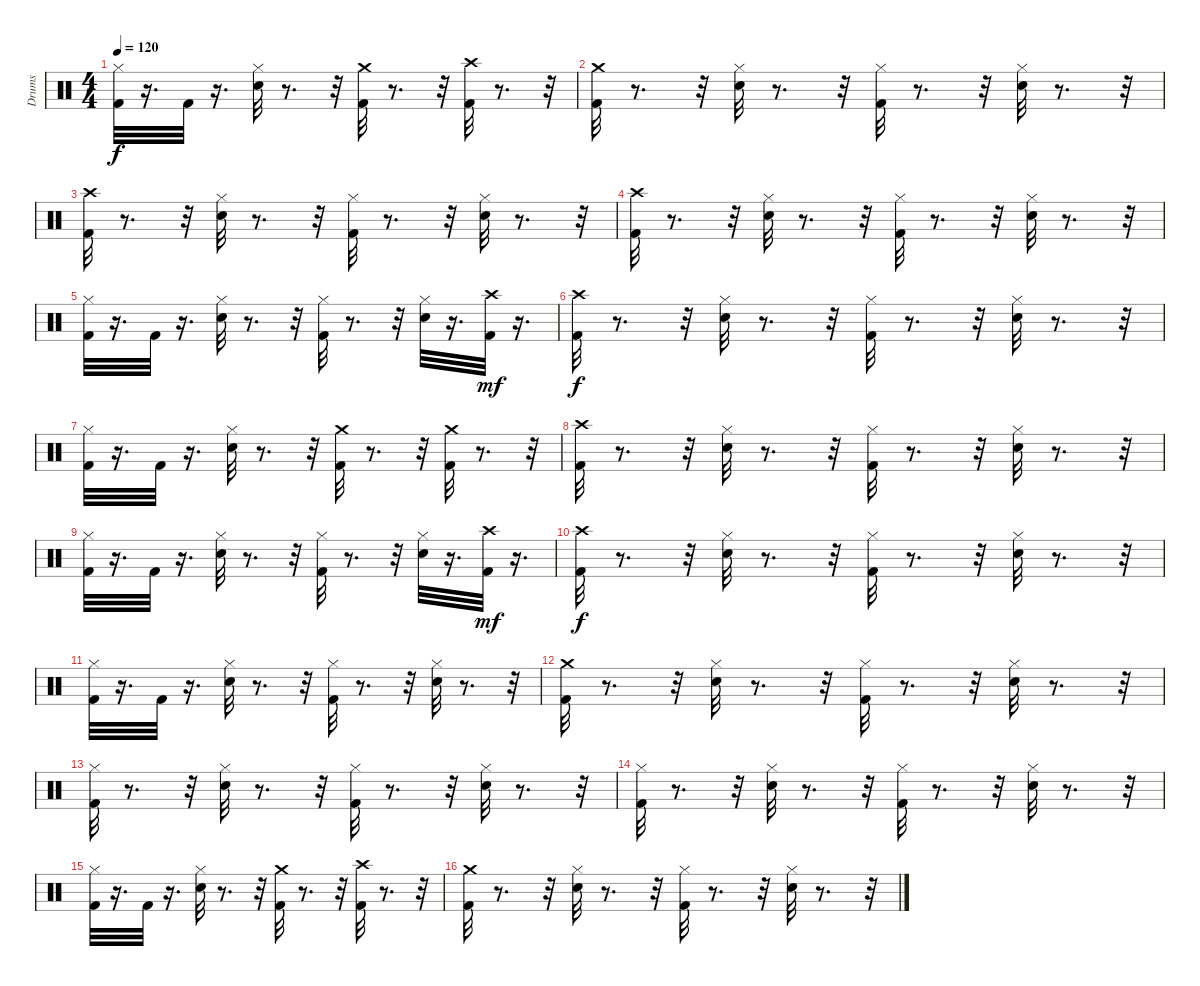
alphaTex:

\track ("Drums" "Drums") {instrument percussion}
\staff {score}
\articulation defaults
\ts (4 4)
\tempo 120
\clef neutral
\ks c
("Kick (hit) 2" "Hi-Hat (closed)").32{dy f} r.16{d} "Kick (hit) 2".32 r.16{d} ("Snare (hit) 2" "Hi-Hat (closed)").32 r.8{d} r.32 ("Kick (hit) 2" "Crash medium (hit)").32 r.8{d} r.32 ("Kick (hit) 2" "Crash high (hit)").32 r.8{d} r.32 |
("Kick (hit) 2" "Crash medium (hit)").32 r.8{d} r.32 ("Snare (hit) 2" "Hi-Hat (closed)").32 r.8{d} r.32 ("Kick (hit) 2" "Hi-Hat (closed)").32 r.8{d} r.32 ("Snare (hit) 2" "Hi-Hat (closed)").32 r.8{d} r.32 |
("Kick (hit) 2" "Crash high (hit)").32 r.8{d} r.32 ("Snare (hit) 2" "Hi-Hat (closed)").32 r.8{d} r.32 ("Kick (hit) 2" "Hi-Hat (closed)").32 r.8{d} r.32 ("Snare (hit) 2" "Hi-Hat (closed)").32 r.8{d} r.32 |
("Kick (hit) 2" "Crash high (hit)").32 r.8{d} r.32 ("Snare (hit) 2" "Hi-Hat (closed)").32 r.8{d} r.32 ("Kick (hit) 2" "Hi-Hat (closed)").32 r.8{d} r.32 ("Snare (hit) 2" "Hi-Hat (closed)").32 r.8{d} r.32 |
("Kick (hit) 2" "Hi-Hat (closed)").32 r.16{d} "Kick (hit) 2".32 r.16{d} ("Snare (hit) 2" "Hi-Hat (closed)").32 r.8{d} r.32 ("Kick (hit) 2" "Hi-Hat (closed)").32 r.8{d} r.32 ("Snare (hit) 2" "Hi-Hat (closed)").32 r.16{d} ("Kick (hit) 2" "Crash high (hit)").32{dy mf} r.16{d} |
("Kick (hit) 2" "Crash high (hit)").32{dy f} r.8{d} r.32 ("Snare (hit) 2" "Hi-Hat (closed)").32 r.8{d} r.32 ("Kick (hit) 2" "Hi-Hat (closed)").32 r.8{d} r.32 ("Snare (hit) 2" "Hi-Hat (closed)").32 r.8{d} r.32 |
("Kick (hit) 2" "Hi-Hat (closed)").32 r.16{d} "Kick (hit) 2".32 r.16{d} ("Snare (hit) 2" "Hi-Hat (closed)").32 r.8{d} r.32 ("Kick (hit) 2" "Crash medium (hit)").32 r.8{d} r.32 ("Kick (hit) 2" "Crash medium (hit)").32 r.8{d} r.32 |
("Kick (hit) 2" "Crash high (hit)").32 r.8{d} r.32 ("Snare (hit) 2" "Hi-Hat (closed)").32 r.8{d} r.32 ("Kick (hit) 2" "Hi-Hat (closed)").32 r.8{d} r.32 ("Snare (hit) 2" "Hi-Hat (closed)").32 r.8{d} r.32 |
("Kick (hit) 2" "Hi-Hat (closed)").32 r.16{d} "Kick (hit) 2".32 r.16{d} ("Snare (hit) 2" "Hi-Hat (closed)").32 r.8{d} r.32 ("Kick (hit) 2" "Hi-Hat (closed)").32 r.8{d} r.32 ("Snare (hit) 2" "Hi-Hat (closed)").32 r.16{d} ("Kick (hit) 2" "Crash high (hit)").32{dy mf} r.16{d} |
("Kick (hit) 2" "Crash high (hit)").32{dy f} r.8{d} r.32 ("Snare (hit) 2" "Hi-Hat (closed)").32 r.8{d} r.32 ("Kick (hit) 2" "Hi-Hat (closed)").32 r.8{d} r.32 ("Snare (hit) 2" "Hi-Hat (closed)").32 r.8{d} r.32 |
("Kick (hit) 2" "Hi-Hat (closed)").32 r.16{d} "Kick (hit) 2".32 r.16{d} ("Snare (hit) 2" "Hi-Hat (closed)").32 r.8{d} r.32 ("Kick (hit) 2" "Hi-Hat (closed)").32 r.8{d} r.32 ("Snare (hit) 2" "Hi-Hat (closed)").32 r.8{d} r.32 |
("Kick (hit) 2" "Crash medium (hit)").32 r.8{d} r.32 ("Snare (hit) 2" "Hi-Hat (closed)").32 r.8{d} r.32 ("Kick (hit) 2" "Hi-Hat (closed)").32 r.8{d} r.32 ("Snare (hit) 2" "Hi-Hat (closed)").32 r.8{d} r.32 |
("Kick (hit) 2" "Hi-Hat (closed)").32 r.8{d} r.32 ("Snare (hit) 2" "Hi-Hat (closed)").32 r.8{d} r.32 ("Kick (hit) 2" "Hi-Hat (closed)").32 r.8{d} r.32 ("Snare (hit) 2" "Hi-Hat (closed)").32 r.8{d} r.32 |
("Kick (hit) 2" "Hi-Hat (closed)").32 r.8{d} r.32 ("Snare (hit) 2" "Hi-Hat (closed)").32 r.8{d} r.32 ("Kick (hit) 2" "Hi-Hat (closed)").32 r.8{d} r.32 ("Snare (hit) 2" "Hi-Hat (closed)").32 r.8{d} r.32 |
("Kick (hit) 2" "Hi-Hat (closed)").32 r.16{d} "Kick (hit) 2".32 r.16{d} ("Snare (hit) 2" "Hi-Hat (closed)").32 r.8{d} r.32 ("Kick (hit) 2" "Crash medium (hit)").32 r.8{d} r.32 ("Kick (hit) 2" "Crash high (hit)").32 r.8{d} r.32 |
("Kick (hit) 2" "Crash medium (hit)").32 r.8{d} r.32 ("Snare (hit) 2" "Hi-Hat (closed)").32 r.8{d} r.32 ("Kick (hit) 2" "Hi-Hat (closed)").32 r.8{d} r.32 ("Snare (hit) 2" "Hi-Hat (closed)").32 r.8{d} r.32
